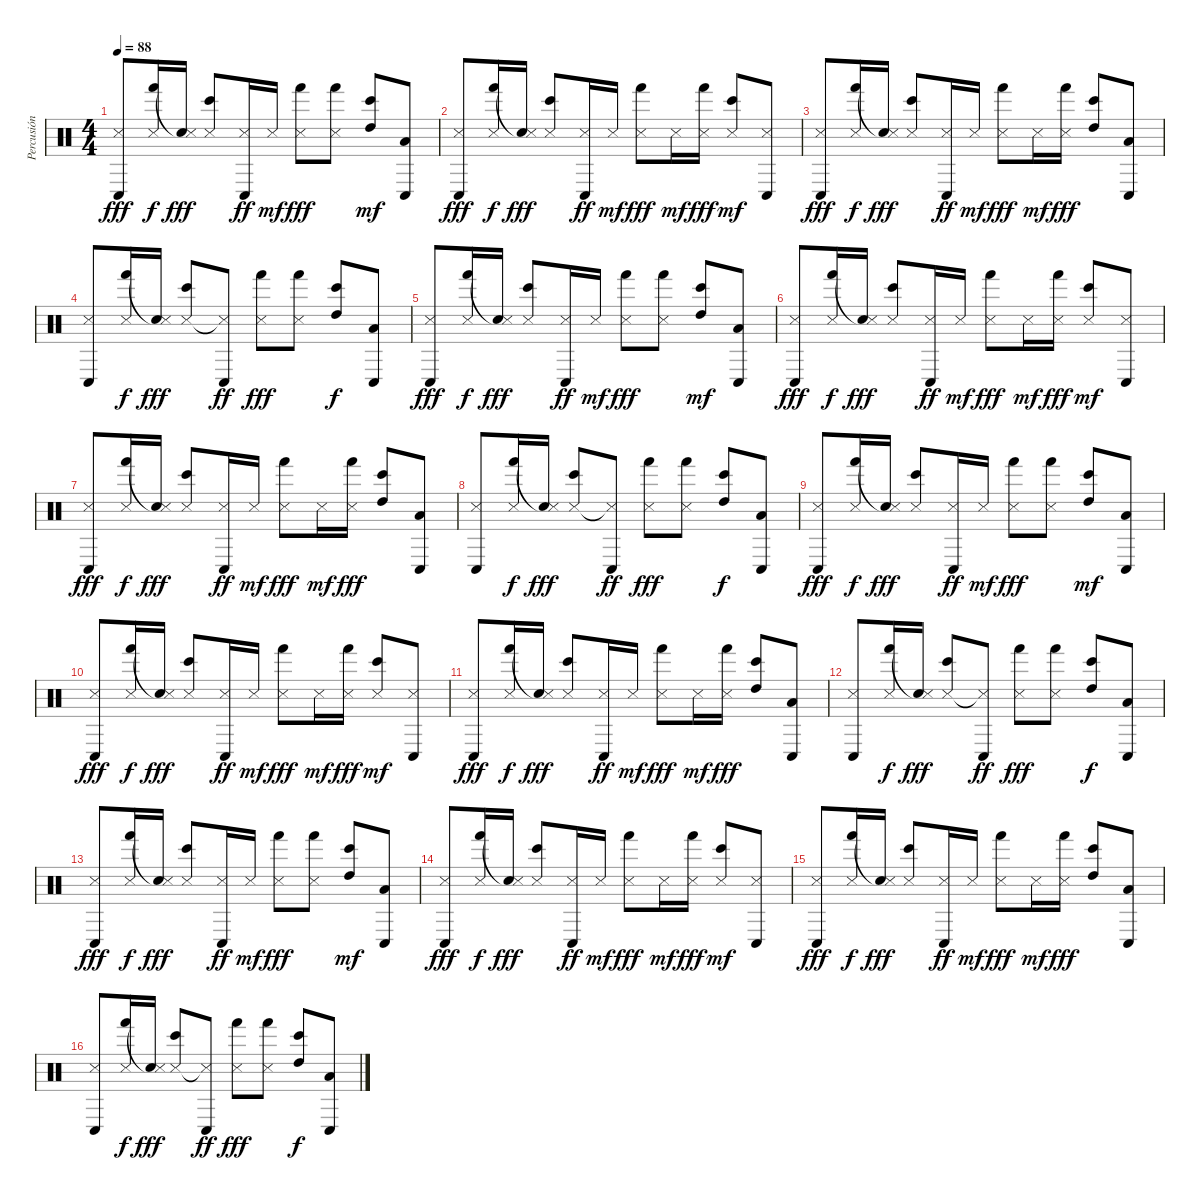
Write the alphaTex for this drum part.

\track ("Percusión" "Percusión") {instrument percussion}
\staff {score}
\articulation defaults
\ts (4 4)
\tempo 88
\clef neutral
\ks c
("Conga low (hit)" "Snare (side stick) 3").8{dy fff} ("Hand (hit)" "Snare (side stick) 3").16{dy f} ("Snare (hit)"{t} "Snare (side stick) 3").16{dy fff} ("Bongo High (hit)" "Snare (side stick) 3").8 ("Conga low (hit)" "Snare (side stick) 3").16{dy ff} "Snare (side stick) 3".16{dy mf} ("Hand (hit)" "Snare (side stick) 3").8{dy fff} ("Hand (hit)" "Snare (side stick) 3").8 ("Bongo High (hit)" "High Tom (hit)").8{dy mf} ("Conga low (hit)" "Low Tom (hit)").8 |
("Conga low (hit)" "Snare (side stick) 3").8{dy fff} ("Hand (hit)" "Snare (side stick) 3").16{dy f} ("Snare (hit)"{t} "Snare (side stick) 3").16{dy fff} ("Bongo High (hit)" "Snare (side stick) 3").8 ("Conga low (hit)" "Snare (side stick) 3").16{dy ff} "Snare (side stick) 3".16{dy mf} ("Hand (hit)" "Snare (side stick) 3").8{dy fff} "Snare (side stick) 3".16{dy mf} ("Hand (hit)" "Snare (side stick) 3").16{dy fff} ("Bongo High (hit)" "Snare (side stick) 3").8{dy mf} ("Conga low (hit)" "Snare (side stick) 3").8 |
("Conga low (hit)" "Snare (side stick) 3").8{dy fff} ("Hand (hit)" "Snare (side stick) 3").16{dy f} ("Snare (hit)"{t} "Snare (side stick) 3").16{dy fff} ("Bongo High (hit)" "Snare (side stick) 3").8 ("Conga low (hit)" "Snare (side stick) 3").16{dy ff} "Snare (side stick) 3".16{dy mf} ("Hand (hit)" "Snare (side stick) 3").8{dy fff} "Snare (side stick) 3".16{dy mf} ("Hand (hit)" "Snare (side stick) 3").16{dy fff} ("Bongo High (hit)" "High Tom (hit)").8 ("Conga low (hit)" "Low Tom (hit)").8 |
("Conga low (hit)" "Snare (side stick) 3").8 ("Hand (hit)" "Snare (side stick) 3").16{dy f} ("Snare (hit)"{t} "Snare (side stick) 3").16{dy fff} ("Bongo High (hit)" "Snare (side stick) 3").8 ("Conga low (hit)" "Snare (side stick) 3"{t}).8{dy ff} ("Hand (hit)" "Snare (side stick) 3").8{dy fff} ("Hand (hit)" "Snare (side stick) 3").8 ("Bongo High (hit)" "High Tom (hit)").8{dy f} ("Conga low (hit)" "Low Tom (hit)").8 |
("Conga low (hit)" "Snare (side stick) 3").8{dy fff} ("Hand (hit)" "Snare (side stick) 3").16{dy f} ("Snare (hit)"{t} "Snare (side stick) 3").16{dy fff} ("Bongo High (hit)" "Snare (side stick) 3").8 ("Conga low (hit)" "Snare (side stick) 3").16{dy ff} "Snare (side stick) 3".16{dy mf} ("Hand (hit)" "Snare (side stick) 3").8{dy fff} ("Hand (hit)" "Snare (side stick) 3").8 ("Bongo High (hit)" "High Tom (hit)").8{dy mf} ("Conga low (hit)" "Low Tom (hit)").8 |
("Conga low (hit)" "Snare (side stick) 3").8{dy fff} ("Hand (hit)" "Snare (side stick) 3").16{dy f} ("Snare (hit)"{t} "Snare (side stick) 3").16{dy fff} ("Bongo High (hit)" "Snare (side stick) 3").8 ("Conga low (hit)" "Snare (side stick) 3").16{dy ff} "Snare (side stick) 3".16{dy mf} ("Hand (hit)" "Snare (side stick) 3").8{dy fff} "Snare (side stick) 3".16{dy mf} ("Hand (hit)" "Snare (side stick) 3").16{dy fff} ("Bongo High (hit)" "Snare (side stick) 3").8{dy mf} ("Conga low (hit)" "Snare (side stick) 3").8 |
("Conga low (hit)" "Snare (side stick) 3").8{dy fff} ("Hand (hit)" "Snare (side stick) 3").16{dy f} ("Snare (hit)"{t} "Snare (side stick) 3").16{dy fff} ("Bongo High (hit)" "Snare (side stick) 3").8 ("Conga low (hit)" "Snare (side stick) 3").16{dy ff} "Snare (side stick) 3".16{dy mf} ("Hand (hit)" "Snare (side stick) 3").8{dy fff} "Snare (side stick) 3".16{dy mf} ("Hand (hit)" "Snare (side stick) 3").16{dy fff} ("Bongo High (hit)" "High Tom (hit)").8 ("Conga low (hit)" "Low Tom (hit)").8 |
("Conga low (hit)" "Snare (side stick) 3").8 ("Hand (hit)" "Snare (side stick) 3").16{dy f} ("Snare (hit)"{t} "Snare (side stick) 3").16{dy fff} ("Bongo High (hit)" "Snare (side stick) 3").8 ("Conga low (hit)" "Snare (side stick) 3"{t}).8{dy ff} ("Hand (hit)" "Snare (side stick) 3").8{dy fff} ("Hand (hit)" "Snare (side stick) 3").8 ("Bongo High (hit)" "High Tom (hit)").8{dy f} ("Conga low (hit)" "Low Tom (hit)").8 |
("Conga low (hit)" "Snare (side stick) 3").8{dy fff} ("Hand (hit)" "Snare (side stick) 3").16{dy f} ("Snare (hit)"{t} "Snare (side stick) 3").16{dy fff} ("Bongo High (hit)" "Snare (side stick) 3").8 ("Conga low (hit)" "Snare (side stick) 3").16{dy ff} "Snare (side stick) 3".16{dy mf} ("Hand (hit)" "Snare (side stick) 3").8{dy fff} ("Hand (hit)" "Snare (side stick) 3").8 ("Bongo High (hit)" "High Tom (hit)").8{dy mf} ("Conga low (hit)" "Low Tom (hit)").8 |
("Conga low (hit)" "Snare (side stick) 3").8{dy fff} ("Hand (hit)" "Snare (side stick) 3").16{dy f} ("Snare (hit)"{t} "Snare (side stick) 3").16{dy fff} ("Bongo High (hit)" "Snare (side stick) 3").8 ("Conga low (hit)" "Snare (side stick) 3").16{dy ff} "Snare (side stick) 3".16{dy mf} ("Hand (hit)" "Snare (side stick) 3").8{dy fff} "Snare (side stick) 3".16{dy mf} ("Hand (hit)" "Snare (side stick) 3").16{dy fff} ("Bongo High (hit)" "Snare (side stick) 3").8{dy mf} ("Conga low (hit)" "Snare (side stick) 3").8 |
("Conga low (hit)" "Snare (side stick) 3").8{dy fff} ("Hand (hit)" "Snare (side stick) 3").16{dy f} ("Snare (hit)"{t} "Snare (side stick) 3").16{dy fff} ("Bongo High (hit)" "Snare (side stick) 3").8 ("Conga low (hit)" "Snare (side stick) 3").16{dy ff} "Snare (side stick) 3".16{dy mf} ("Hand (hit)" "Snare (side stick) 3").8{dy fff} "Snare (side stick) 3".16{dy mf} ("Hand (hit)" "Snare (side stick) 3").16{dy fff} ("Bongo High (hit)" "High Tom (hit)").8 ("Conga low (hit)" "Low Tom (hit)").8 |
("Conga low (hit)" "Snare (side stick) 3").8 ("Hand (hit)" "Snare (side stick) 3").16{dy f} ("Snare (hit)"{t} "Snare (side stick) 3").16{dy fff} ("Bongo High (hit)" "Snare (side stick) 3").8 ("Conga low (hit)" "Snare (side stick) 3"{t}).8{dy ff} ("Hand (hit)" "Snare (side stick) 3").8{dy fff} ("Hand (hit)" "Snare (side stick) 3").8 ("Bongo High (hit)" "High Tom (hit)").8{dy f} ("Conga low (hit)" "Low Tom (hit)").8 |
("Conga low (hit)" "Snare (side stick) 3").8{dy fff} ("Hand (hit)" "Snare (side stick) 3").16{dy f} ("Snare (hit)"{t} "Snare (side stick) 3").16{dy fff} ("Bongo High (hit)" "Snare (side stick) 3").8 ("Conga low (hit)" "Snare (side stick) 3").16{dy ff} "Snare (side stick) 3".16{dy mf} ("Hand (hit)" "Snare (side stick) 3").8{dy fff} ("Hand (hit)" "Snare (side stick) 3").8 ("Bongo High (hit)" "High Tom (hit)").8{dy mf} ("Conga low (hit)" "Low Tom (hit)").8 |
("Conga low (hit)" "Snare (side stick) 3").8{dy fff} ("Hand (hit)" "Snare (side stick) 3").16{dy f} ("Snare (hit)"{t} "Snare (side stick) 3").16{dy fff} ("Bongo High (hit)" "Snare (side stick) 3").8 ("Conga low (hit)" "Snare (side stick) 3").16{dy ff} "Snare (side stick) 3".16{dy mf} ("Hand (hit)" "Snare (side stick) 3").8{dy fff} "Snare (side stick) 3".16{dy mf} ("Hand (hit)" "Snare (side stick) 3").16{dy fff} ("Bongo High (hit)" "Snare (side stick) 3").8{dy mf} ("Conga low (hit)" "Snare (side stick) 3").8 |
("Conga low (hit)" "Snare (side stick) 3").8{dy fff} ("Hand (hit)" "Snare (side stick) 3").16{dy f} ("Snare (hit)"{t} "Snare (side stick) 3").16{dy fff} ("Bongo High (hit)" "Snare (side stick) 3").8 ("Conga low (hit)" "Snare (side stick) 3").16{dy ff} "Snare (side stick) 3".16{dy mf} ("Hand (hit)" "Snare (side stick) 3").8{dy fff} "Snare (side stick) 3".16{dy mf} ("Hand (hit)" "Snare (side stick) 3").16{dy fff} ("Bongo High (hit)" "High Tom (hit)").8 ("Conga low (hit)" "Low Tom (hit)").8 |
("Conga low (hit)" "Snare (side stick) 3").8 ("Hand (hit)" "Snare (side stick) 3").16{dy f} ("Snare (hit)"{t} "Snare (side stick) 3").16{dy fff} ("Bongo High (hit)" "Snare (side stick) 3").8 ("Conga low (hit)" "Snare (side stick) 3"{t}).8{dy ff} ("Hand (hit)" "Snare (side stick) 3").8{dy fff} ("Hand (hit)" "Snare (side stick) 3").8 ("Bongo High (hit)" "High Tom (hit)").8{dy f} ("Conga low (hit)" "Low Tom (hit)").8
